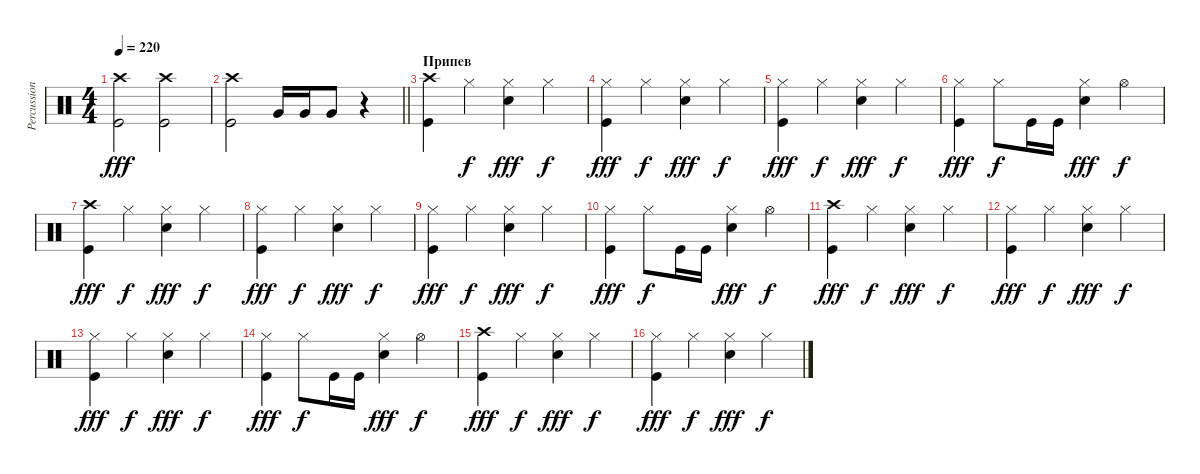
\track ("Percussion" "Percussion") {instrument percussion}
\staff {score}
\articulation defaults
\ts (4 4)
\tempo 220
\clef neutral
\ks c
("Kick (hit)" "Crash high (hit)").2{dy fff} ("Kick (hit)" "Crash high (hit)").2 |
\barLineRight lightlight
("Kick (hit)" "Crash high (hit)").2 "Very Low Tom (hit)".16 "Very Low Tom (hit)".16 "Very Low Tom (hit)".8 r.4 |
\section ("" "Припев")
("Kick (hit)" "Crash high (hit)").4 "Hi-Hat (closed)".4{dy f} ("Snare (hit) 2" "Hi-Hat (closed)").4{dy fff} "Hi-Hat (closed)".4{dy f} |
("Kick (hit)" "Hi-Hat (closed)").4{dy fff} "Hi-Hat (closed)".4{dy f} ("Snare (hit) 2" "Hi-Hat (closed)").4{dy fff} "Hi-Hat (closed)".4{dy f} |
("Kick (hit)" "Hi-Hat (closed)").4{dy fff} "Hi-Hat (closed)".4{dy f} ("Snare (hit) 2" "Hi-Hat (closed)").4{dy fff} "Hi-Hat (closed)".4{dy f} |
("Kick (hit)" "Hi-Hat (closed)").4{dy fff} "Hi-Hat (closed)".8{dy f} "Kick (hit)".16 "Kick (hit)".16 ("Snare (hit) 2" "Hi-Hat (closed)").4{dy fff} "Hi-Hat (open)".4{dy f} |
("Kick (hit)" "Crash high (hit)").4{dy fff} "Hi-Hat (closed)".4{dy f} ("Snare (hit) 2" "Hi-Hat (closed)").4{dy fff} "Hi-Hat (closed)".4{dy f} |
("Kick (hit)" "Hi-Hat (closed)").4{dy fff} "Hi-Hat (closed)".4{dy f} ("Snare (hit) 2" "Hi-Hat (closed)").4{dy fff} "Hi-Hat (closed)".4{dy f} |
("Kick (hit)" "Hi-Hat (closed)").4{dy fff} "Hi-Hat (closed)".4{dy f} ("Snare (hit) 2" "Hi-Hat (closed)").4{dy fff} "Hi-Hat (closed)".4{dy f} |
("Kick (hit)" "Hi-Hat (closed)").4{dy fff} "Hi-Hat (closed)".8{dy f} "Kick (hit)".16 "Kick (hit)".16 ("Snare (hit) 2" "Hi-Hat (closed)").4{dy fff} "Hi-Hat (open)".4{dy f} |
("Kick (hit)" "Crash high (hit)").4{dy fff} "Hi-Hat (closed)".4{dy f} ("Snare (hit) 2" "Hi-Hat (closed)").4{dy fff} "Hi-Hat (closed)".4{dy f} |
("Kick (hit)" "Hi-Hat (closed)").4{dy fff} "Hi-Hat (closed)".4{dy f} ("Snare (hit) 2" "Hi-Hat (closed)").4{dy fff} "Hi-Hat (closed)".4{dy f} |
("Kick (hit)" "Hi-Hat (closed)").4{dy fff} "Hi-Hat (closed)".4{dy f} ("Snare (hit) 2" "Hi-Hat (closed)").4{dy fff} "Hi-Hat (closed)".4{dy f} |
("Kick (hit)" "Hi-Hat (closed)").4{dy fff} "Hi-Hat (closed)".8{dy f} "Kick (hit)".16 "Kick (hit)".16 ("Snare (hit) 2" "Hi-Hat (closed)").4{dy fff} "Hi-Hat (open)".4{dy f} |
("Kick (hit)" "Crash high (hit)").4{dy fff} "Hi-Hat (closed)".4{dy f} ("Snare (hit) 2" "Hi-Hat (closed)").4{dy fff} "Hi-Hat (closed)".4{dy f} |
("Kick (hit)" "Hi-Hat (closed)").4{dy fff} "Hi-Hat (closed)".4{dy f} ("Snare (hit) 2" "Hi-Hat (closed)").4{dy fff} "Hi-Hat (closed)".4{dy f}
